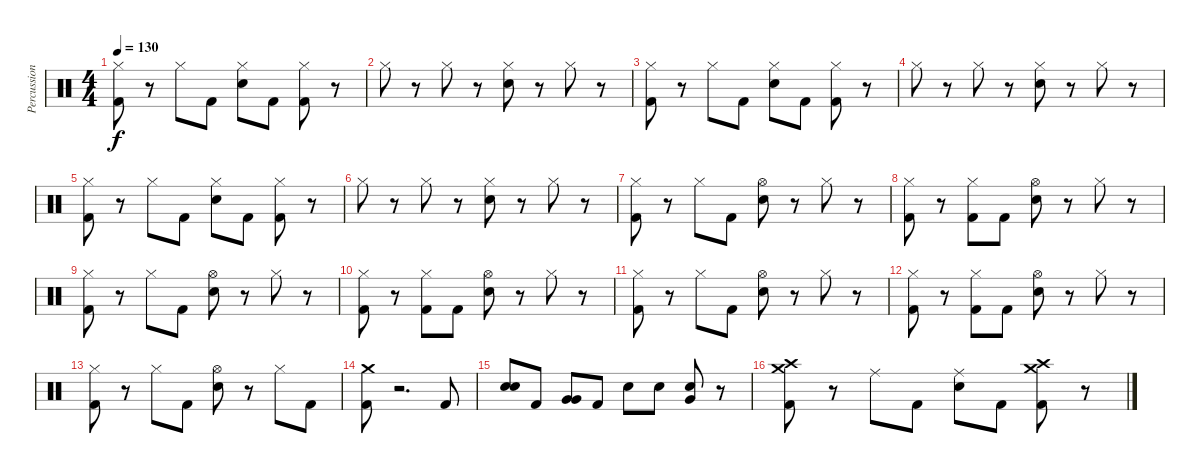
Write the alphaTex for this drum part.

\track ("Percussion" "Percussion") {instrument percussion}
\staff {score}
\articulation defaults
\ts (4 4)
\tempo 130
\clef neutral
\ks c
("Hi-Hat (closed)" "Kick (hit) 2").8{dy f} r.8 "Hi-Hat (closed)".8 "Kick (hit) 2".8 ("Hi-Hat (closed)" "Snare (hit) 2").8 "Kick (hit) 2".8 ("Hi-Hat (closed)" "Kick (hit) 2").8 r.8 |
"Hi-Hat (closed)".8 r.8 "Hi-Hat (closed)".8 r.8 ("Hi-Hat (closed)" "Snare (hit) 2").8 r.8 "Hi-Hat (closed)".8 r.8 |
("Hi-Hat (closed)" "Kick (hit) 2").8 r.8 "Hi-Hat (closed)".8 "Kick (hit) 2".8 ("Hi-Hat (closed)" "Snare (hit) 2").8 "Kick (hit) 2".8 ("Hi-Hat (closed)" "Kick (hit) 2").8 r.8 |
"Hi-Hat (closed)".8 r.8 "Hi-Hat (closed)".8 r.8 ("Hi-Hat (closed)" "Snare (hit) 2").8 r.8 "Hi-Hat (closed)".8 r.8 |
("Hi-Hat (closed)" "Kick (hit) 2").8 r.8 "Hi-Hat (closed)".8 "Kick (hit) 2".8 ("Hi-Hat (closed)" "Snare (hit) 2").8 "Kick (hit) 2".8 ("Hi-Hat (closed)" "Kick (hit) 2").8 r.8 |
"Hi-Hat (closed)".8 r.8 "Hi-Hat (closed)".8 r.8 ("Hi-Hat (closed)" "Snare (hit) 2").8 r.8 "Hi-Hat (closed)".8 r.8 |
("Hi-Hat (closed)" "Kick (hit) 2").8 r.8 "Hi-Hat (closed)".8 "Kick (hit) 2".8 ("Hi-Hat (open)" "Snare (hit) 2").8 r.8 "Hi-Hat (closed)".8 r.8 |
("Hi-Hat (closed)" "Kick (hit) 2").8 r.8 ("Hi-Hat (closed)" "Kick (hit) 2").8 "Kick (hit) 2".8 ("Hi-Hat (open)" "Snare (hit) 2").8 r.8 "Hi-Hat (closed)".8 r.8 |
("Hi-Hat (closed)" "Kick (hit) 2").8 r.8 "Hi-Hat (closed)".8 "Kick (hit) 2".8 ("Hi-Hat (open)" "Snare (hit) 2").8 r.8 "Hi-Hat (closed)".8 r.8 |
("Hi-Hat (closed)" "Kick (hit) 2").8 r.8 ("Hi-Hat (closed)" "Kick (hit) 2").8 "Kick (hit) 2".8 ("Hi-Hat (open)" "Snare (hit) 2").8 r.8 "Hi-Hat (closed)".8 r.8 |
("Hi-Hat (closed)" "Kick (hit) 2").8 r.8 "Hi-Hat (closed)".8 "Kick (hit) 2".8 ("Hi-Hat (open)" "Snare (hit) 2").8 r.8 "Hi-Hat (closed)".8 r.8 |
("Hi-Hat (closed)" "Kick (hit) 2").8 r.8 ("Hi-Hat (closed)" "Kick (hit) 2").8 "Kick (hit) 2".8 ("Hi-Hat (open)" "Snare (hit) 2").8 r.8 "Hi-Hat (closed)".8 r.8 |
("Hi-Hat (closed)" "Kick (hit) 2").8 r.8 "Hi-Hat (closed)".8 "Kick (hit) 2".8 ("Hi-Hat (open)" "Snare (hit) 2").8 r.8 "Hi-Hat (closed)".8 "Kick (hit) 2".8 |
("Crash medium (hit)" "Kick (hit) 2").8 r.2{d} "Kick (hit) 2".8 |
("Snare (hit) 2" "Snare (hit) 2").8{bd 240} "Kick (hit) 2".8 ("Very Low Tom (hit)" "Very Low Tom (hit)").8{bd 240} "Kick (hit) 2".8 "Snare (hit) 2".8 "Snare (hit) 2".8 ("Very Low Tom (hit)" "Snare (hit) 2").8{bd 240} r.8 |
("Crash medium (hit)" "Crash high (hit)" "Kick (hit) 2").8 r.8 "Ride (middle)".8 "Kick (hit) 2".8 ("Ride (middle)" "Snare (hit) 2").8 "Kick (hit) 2".8 ("Crash medium (hit)" "Crash high (hit)" "Kick (hit) 2").8 r.8
